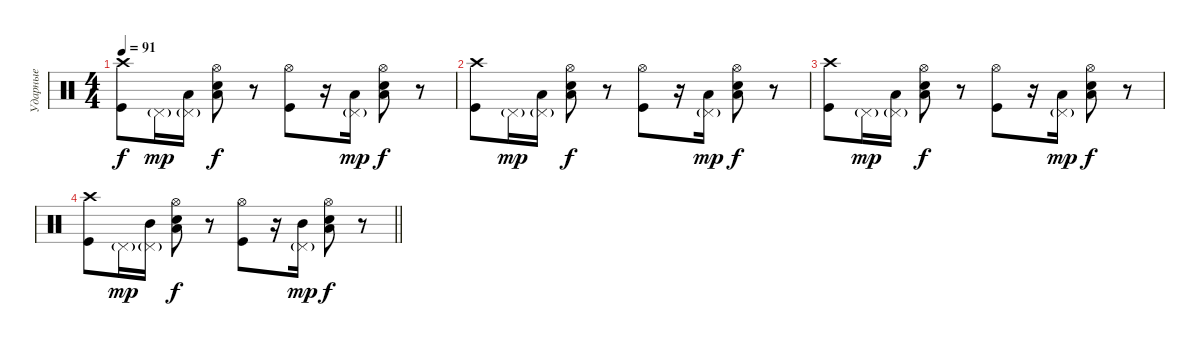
\track ("Ударные" "Ударные") {instrument percussion}
\staff {score}
\articulation defaults
\ts (4 4)
\tempo 91
\clef neutral
\ks c
("Crash high (hit)" "Kick (hit)").8{dy f} "Pedal Hi-Hat (hit)"{g}.16{dy mp} ("Pedal Hi-Hat (hit)"{g} "Low Tom (hit)").16 ("Hi-Hat (open)" "Low Tom (hit)" "Snare (hit) 2").8{dy f} r.8 ("Hi-Hat (open)" "Kick (hit)").8 r.16 ("Pedal Hi-Hat (hit)"{g} "Low Tom (hit)").16{dy mp} ("Hi-Hat (open)" "Low Tom (hit)" "Snare (hit) 2").8{dy f} r.8 |
("Crash high (hit)" "Kick (hit)").8 "Pedal Hi-Hat (hit)"{g}.16{dy mp} ("Pedal Hi-Hat (hit)"{g} "Low Tom (hit)").16 ("Hi-Hat (open)" "Low Tom (hit)" "Snare (hit) 2").8{dy f} r.8 ("Hi-Hat (open)" "Kick (hit)").8 r.16 ("Pedal Hi-Hat (hit)"{g} "Low Tom (hit)").16{dy mp} ("Hi-Hat (open)" "Low Tom (hit)" "Snare (hit) 2").8{dy f} r.8 |
("Crash high (hit)" "Kick (hit)").8 "Pedal Hi-Hat (hit)"{g}.16{dy mp} ("Pedal Hi-Hat (hit)"{g} "Low Tom (hit)").16 ("Hi-Hat (open)" "Low Tom (hit)" "Snare (hit) 2").8{dy f} r.8 ("Hi-Hat (open)" "Kick (hit)").8 r.16 ("Pedal Hi-Hat (hit)"{g} "Low Tom (hit)").16{dy mp} ("Hi-Hat (open)" "Low Tom (hit)" "Snare (hit) 2").8{dy f} r.8 |
\barLineRight lightlight
("Crash high (hit)" "Kick (hit)").8 "Pedal Hi-Hat (hit)"{g}.16{dy mp} ("Pedal Hi-Hat (hit)"{g} "Mid Tom (hit)").16 ("Hi-Hat (open)" "Low Tom (hit)" "Snare (hit) 2").8{dy f} r.8 ("Hi-Hat (open)" "Kick (hit)").8 r.16 ("Pedal Hi-Hat (hit)"{g} "Mid Tom (hit)").16{dy mp} ("Hi-Hat (open)" "Low Tom (hit)" "Snare (hit) 2").8{dy f} r.8
